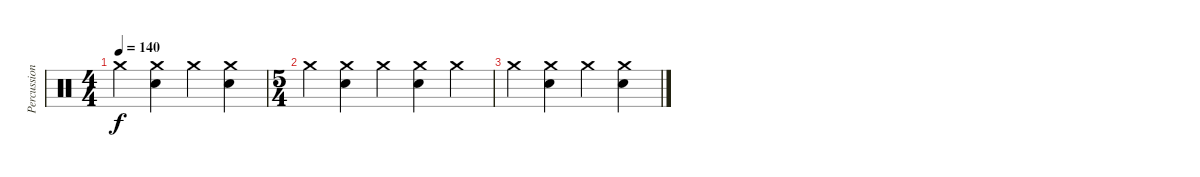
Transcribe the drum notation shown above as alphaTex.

\track ("Percussion" "Percussion") {instrument percussion}
\staff {score}
\articulation defaults
\ts (4 4)
\tempo 140
\clef neutral
\ks c "Crash medium (hit)".4{dy f}
("Snare (hit) 2" "Crash medium (hit)").4 "Crash medium (hit)".4 ("Snare (hit) 2" "Crash medium (hit)").4 |
\ts (5 4)
"Crash medium (hit)".4 ("Snare (hit) 2" "Crash medium (hit)").4 "Crash medium (hit)".4 ("Snare (hit) 2" "Crash medium (hit)").4 "Crash medium (hit)".4 |
"Crash medium (hit)".4 ("Snare (hit) 2" "Crash medium (hit)").4 "Crash medium (hit)".4 ("Snare (hit) 2" "Crash medium (hit)").4
